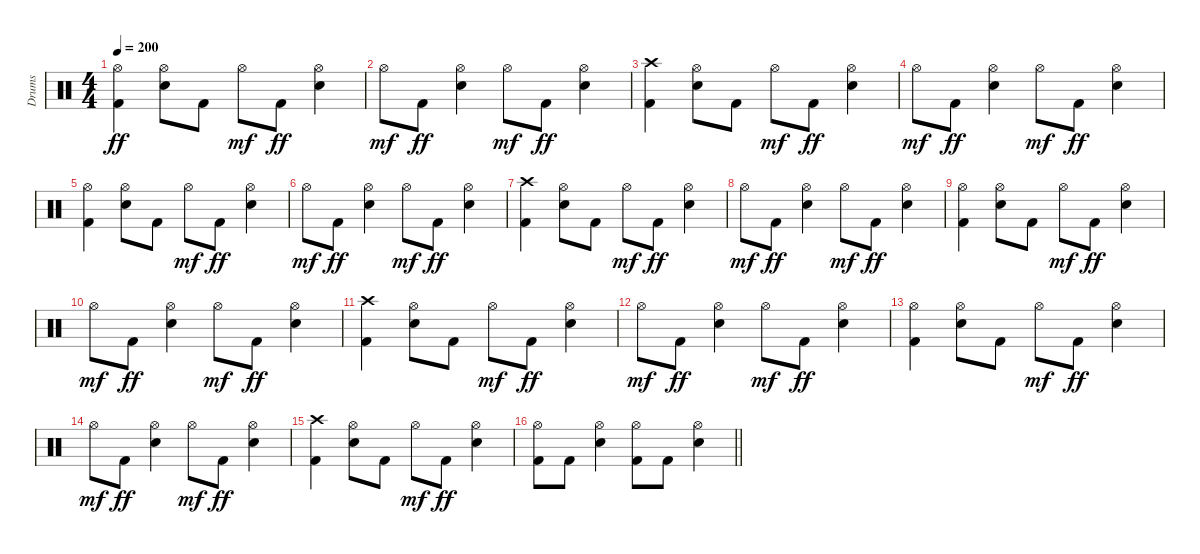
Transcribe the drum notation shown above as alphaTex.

\track ("Drums" "Drums") {instrument percussion}
\staff {score}
\articulation defaults
\ts (4 4)
\tempo 200
\clef neutral
\ks c
("Hi-Hat (open)" "Kick (hit) 2").4{dy ff} ("Hi-Hat (open)" "Electric Snare (hit)").8 "Kick (hit) 2".8 "Hi-Hat (open)".8{dy mf} "Kick (hit) 2".8{dy ff} ("Hi-Hat (open)" "Electric Snare (hit)").4 |
"Hi-Hat (open)".8{dy mf} "Kick (hit) 2".8{dy ff} ("Hi-Hat (open)" "Electric Snare (hit)").4 "Hi-Hat (open)".8{dy mf} "Kick (hit) 2".8{dy ff} ("Hi-Hat (open)" "Electric Snare (hit)").4 |
("Crash high (hit)" "Kick (hit) 2").4 ("Hi-Hat (open)" "Electric Snare (hit)").8 "Kick (hit) 2".8 "Hi-Hat (open)".8{dy mf} "Kick (hit) 2".8{dy ff} ("Hi-Hat (open)" "Electric Snare (hit)").4 |
"Hi-Hat (open)".8{dy mf} "Kick (hit) 2".8{dy ff} ("Hi-Hat (open)" "Electric Snare (hit)").4 "Hi-Hat (open)".8{dy mf} "Kick (hit) 2".8{dy ff} ("Hi-Hat (open)" "Electric Snare (hit)").4 |
("Hi-Hat (open)" "Kick (hit) 2").4 ("Hi-Hat (open)" "Electric Snare (hit)").8 "Kick (hit) 2".8 "Hi-Hat (open)".8{dy mf} "Kick (hit) 2".8{dy ff} ("Hi-Hat (open)" "Electric Snare (hit)").4 |
"Hi-Hat (open)".8{dy mf} "Kick (hit) 2".8{dy ff} ("Hi-Hat (open)" "Electric Snare (hit)").4 "Hi-Hat (open)".8{dy mf} "Kick (hit) 2".8{dy ff} ("Hi-Hat (open)" "Electric Snare (hit)").4 |
("Crash high (hit)" "Kick (hit) 2").4 ("Hi-Hat (open)" "Electric Snare (hit)").8 "Kick (hit) 2".8 "Hi-Hat (open)".8{dy mf} "Kick (hit) 2".8{dy ff} ("Hi-Hat (open)" "Electric Snare (hit)").4 |
"Hi-Hat (open)".8{dy mf} "Kick (hit) 2".8{dy ff} ("Hi-Hat (open)" "Electric Snare (hit)").4 "Hi-Hat (open)".8{dy mf} "Kick (hit) 2".8{dy ff} ("Hi-Hat (open)" "Electric Snare (hit)").4 |
("Hi-Hat (open)" "Kick (hit) 2").4 ("Hi-Hat (open)" "Electric Snare (hit)").8 "Kick (hit) 2".8 "Hi-Hat (open)".8{dy mf} "Kick (hit) 2".8{dy ff} ("Hi-Hat (open)" "Electric Snare (hit)").4 |
"Hi-Hat (open)".8{dy mf} "Kick (hit) 2".8{dy ff} ("Hi-Hat (open)" "Electric Snare (hit)").4 "Hi-Hat (open)".8{dy mf} "Kick (hit) 2".8{dy ff} ("Hi-Hat (open)" "Electric Snare (hit)").4 |
("Crash high (hit)" "Kick (hit) 2").4 ("Hi-Hat (open)" "Electric Snare (hit)").8 "Kick (hit) 2".8 "Hi-Hat (open)".8{dy mf} "Kick (hit) 2".8{dy ff} ("Hi-Hat (open)" "Electric Snare (hit)").4 |
"Hi-Hat (open)".8{dy mf} "Kick (hit) 2".8{dy ff} ("Hi-Hat (open)" "Electric Snare (hit)").4 "Hi-Hat (open)".8{dy mf} "Kick (hit) 2".8{dy ff} ("Hi-Hat (open)" "Electric Snare (hit)").4 |
("Hi-Hat (open)" "Kick (hit) 2").4 ("Hi-Hat (open)" "Electric Snare (hit)").8 "Kick (hit) 2".8 "Hi-Hat (open)".8{dy mf} "Kick (hit) 2".8{dy ff} ("Hi-Hat (open)" "Electric Snare (hit)").4 |
"Hi-Hat (open)".8{dy mf} "Kick (hit) 2".8{dy ff} ("Hi-Hat (open)" "Electric Snare (hit)").4 "Hi-Hat (open)".8{dy mf} "Kick (hit) 2".8{dy ff} ("Hi-Hat (open)" "Electric Snare (hit)").4 |
("Crash high (hit)" "Kick (hit) 2").4 ("Hi-Hat (open)" "Electric Snare (hit)").8 "Kick (hit) 2".8 "Hi-Hat (open)".8{dy mf} "Kick (hit) 2".8{dy ff} ("Hi-Hat (open)" "Electric Snare (hit)").4 |
\barLineRight lightlight
("Hi-Hat (open)" "Kick (hit) 2").8 "Kick (hit) 2".8 ("Hi-Hat (open)" "Electric Snare (hit)").4 ("Hi-Hat (open)" "Kick (hit) 2").8 "Kick (hit) 2".8 ("Hi-Hat (open)" "Electric Snare (hit)").4
